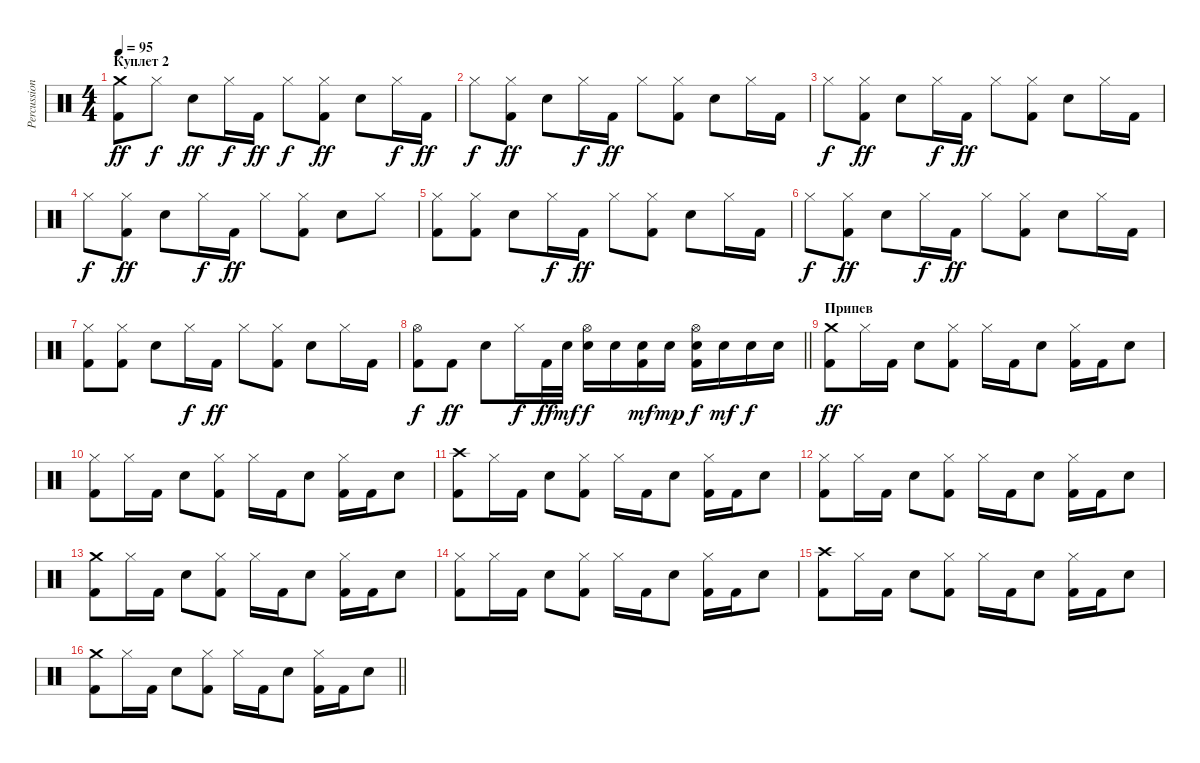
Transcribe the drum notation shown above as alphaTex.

\track ("Percussion" "Percussion") {instrument percussion}
\staff {score}
\articulation defaults
\ts (4 4)
\section ("" "Куплет 2")
\tempo 95
\clef neutral
\ks c
("Crash medium (hit)" "Kick (hit) 2").8{dy ff volume 13} "Hi-Hat (closed)".8{dy f} "Electric Snare (hit)".8{dy ff} "Hi-Hat (closed)".16{dy f} "Kick (hit) 2".16{dy ff} "Hi-Hat (closed)".8{dy f} ("Hi-Hat (closed)" "Kick (hit) 2").8{dy ff} "Electric Snare (hit)".8 "Hi-Hat (closed)".16{dy f} "Kick (hit) 2".16{dy ff} |
"Hi-Hat (closed)".8{dy f} ("Hi-Hat (closed)" "Kick (hit) 2").8{dy ff} "Electric Snare (hit)".8 "Hi-Hat (closed)".16{dy f} "Kick (hit) 2".16{dy ff} "Hi-Hat (closed)".8 ("Hi-Hat (closed)" "Kick (hit) 2").8 "Electric Snare (hit)".8 "Hi-Hat (closed)".16 "Kick (hit) 2".16 |
"Hi-Hat (closed)".8{dy f} ("Hi-Hat (closed)" "Kick (hit) 2").8{dy ff} "Electric Snare (hit)".8 "Hi-Hat (closed)".16{dy f} "Kick (hit) 2".16{dy ff} "Hi-Hat (closed)".8 ("Hi-Hat (closed)" "Kick (hit) 2").8 "Electric Snare (hit)".8 "Hi-Hat (closed)".16 "Kick (hit) 2".16 |
"Hi-Hat (closed)".8{dy f} ("Hi-Hat (closed)" "Kick (hit) 2").8{dy ff} "Electric Snare (hit)".8 "Hi-Hat (closed)".16{dy f} "Kick (hit) 2".16{dy ff} "Hi-Hat (closed)".8 ("Hi-Hat (closed)" "Kick (hit) 2").8 "Electric Snare (hit)".8 "Hi-Hat (closed)".8 |
("Hi-Hat (closed)" "Kick (hit) 2").8 ("Hi-Hat (closed)" "Kick (hit) 2").8 "Electric Snare (hit)".8 "Hi-Hat (closed)".16{dy f} "Kick (hit) 2".16{dy ff} "Hi-Hat (closed)".8 ("Hi-Hat (closed)" "Kick (hit) 2").8 "Electric Snare (hit)".8 "Hi-Hat (closed)".16 "Kick (hit) 2".16 |
"Hi-Hat (closed)".8{dy f} ("Hi-Hat (closed)" "Kick (hit) 2").8{dy ff} "Electric Snare (hit)".8 "Hi-Hat (closed)".16{dy f} "Kick (hit) 2".16{dy ff} "Hi-Hat (closed)".8 ("Hi-Hat (closed)" "Kick (hit) 2").8 "Electric Snare (hit)".8 "Hi-Hat (closed)".16 "Kick (hit) 2".16 |
("Hi-Hat (closed)" "Kick (hit) 2").8 ("Hi-Hat (closed)" "Kick (hit) 2").8 "Electric Snare (hit)".8 "Hi-Hat (closed)".16{dy f} "Kick (hit) 2".16{dy ff} "Hi-Hat (closed)".8 ("Hi-Hat (closed)" "Kick (hit) 2").8 "Electric Snare (hit)".8 "Hi-Hat (closed)".16 "Kick (hit) 2".16 |
\barLineRight lightlight
("Hi-Hat (open)" "Kick (hit) 2").8{dy f} "Kick (hit) 2".8{dy ff} "Electric Snare (hit)".8 "Hi-Hat (closed)".16{dy f} "Kick (hit) 2".32{dy ff} "Electric Snare (hit)".32{dy mf} ("Hi-Hat (open)" "Electric Snare (hit)").16{dy f} "Electric Snare (hit)".16 ("Electric Snare (hit)" "Kick (hit) 2").16{dy mf} "Electric Snare (hit)".16{dy mp} ("Hi-Hat (open)" "Electric Snare (hit)" "Kick (hit) 2").16{dy f} "Electric Snare (hit)".16{dy mf} "Electric Snare (hit)".16{dy f} "Electric Snare (hit)".16 |
\section ("" "Припев")
("Crash medium (hit)" "Kick (hit) 2").8{dy ff} "Hi-Hat (closed)".16 "Kick (hit) 2".16 "Electric Snare (hit)".8 ("Hi-Hat (closed)" "Kick (hit) 2").8 "Hi-Hat (closed)".16 "Kick (hit) 2".16 "Electric Snare (hit)".8 ("Hi-Hat (closed)" "Kick (hit) 2").16 "Kick (hit) 2".16 "Electric Snare (hit)".8 |
("Hi-Hat (closed)" "Kick (hit) 2").8 "Hi-Hat (closed)".16 "Kick (hit) 2".16 "Electric Snare (hit)".8 ("Hi-Hat (closed)" "Kick (hit) 2").8 "Hi-Hat (closed)".16 "Kick (hit) 2".16 "Electric Snare (hit)".8 ("Hi-Hat (closed)" "Kick (hit) 2").16 "Kick (hit) 2".16 "Electric Snare (hit)".8 |
("Crash high (hit)" "Kick (hit) 2").8 "Hi-Hat (closed)".16 "Kick (hit) 2".16 "Electric Snare (hit)".8 ("Hi-Hat (closed)" "Kick (hit) 2").8 "Hi-Hat (closed)".16 "Kick (hit) 2".16 "Electric Snare (hit)".8 ("Hi-Hat (closed)" "Kick (hit) 2").16 "Kick (hit) 2".16 "Electric Snare (hit)".8 |
("Hi-Hat (closed)" "Kick (hit) 2").8 "Hi-Hat (closed)".16 "Kick (hit) 2".16 "Electric Snare (hit)".8 ("Hi-Hat (closed)" "Kick (hit) 2").8 "Hi-Hat (closed)".16 "Kick (hit) 2".16 "Electric Snare (hit)".8 ("Hi-Hat (closed)" "Kick (hit) 2").16 "Kick (hit) 2".16 "Electric Snare (hit)".8 |
("Crash medium (hit)" "Kick (hit) 2").8 "Hi-Hat (closed)".16 "Kick (hit) 2".16 "Electric Snare (hit)".8 ("Hi-Hat (closed)" "Kick (hit) 2").8 "Hi-Hat (closed)".16 "Kick (hit) 2".16 "Electric Snare (hit)".8 ("Hi-Hat (closed)" "Kick (hit) 2").16 "Kick (hit) 2".16 "Electric Snare (hit)".8 |
("Hi-Hat (closed)" "Kick (hit) 2").8 "Hi-Hat (closed)".16 "Kick (hit) 2".16 "Electric Snare (hit)".8 ("Hi-Hat (closed)" "Kick (hit) 2").8 "Hi-Hat (closed)".16 "Kick (hit) 2".16 "Electric Snare (hit)".8 ("Hi-Hat (closed)" "Kick (hit) 2").16 "Kick (hit) 2".16 "Electric Snare (hit)".8 |
("Crash high (hit)" "Kick (hit) 2").8 "Hi-Hat (closed)".16 "Kick (hit) 2".16 "Electric Snare (hit)".8 ("Hi-Hat (closed)" "Kick (hit) 2").8 "Hi-Hat (closed)".16 "Kick (hit) 2".16 "Electric Snare (hit)".8 ("Hi-Hat (closed)" "Kick (hit) 2").16 "Kick (hit) 2".16 "Electric Snare (hit)".8 |
\barLineRight lightlight
("Crash medium (hit)" "Kick (hit) 2").8 "Hi-Hat (closed)".16 "Kick (hit) 2".16 "Electric Snare (hit)".8 ("Hi-Hat (closed)" "Kick (hit) 2").8 "Hi-Hat (closed)".16 "Kick (hit) 2".16 "Electric Snare (hit)".8 ("Hi-Hat (closed)" "Kick (hit) 2").16 "Kick (hit) 2".16 "Electric Snare (hit)".8
